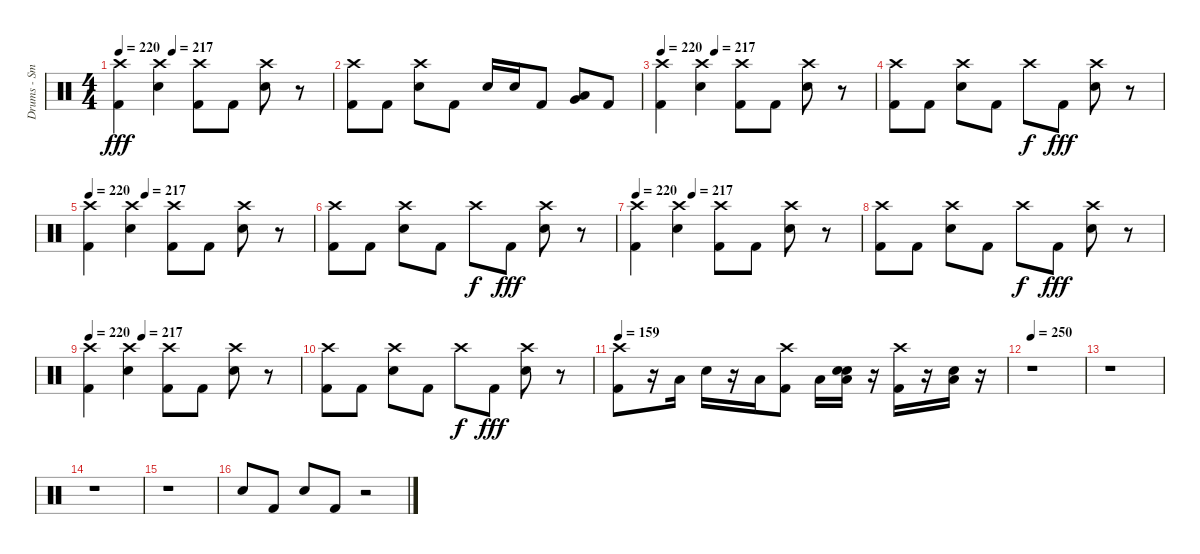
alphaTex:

\track ("Drums - Smelly" "Drums - Sm") {instrument percussion}
\staff {score}
\articulation defaults
\ts (4 4)
\tempo 220
\tempo (217 0.25)
\clef neutral
\ks c
("Crash high (hit)" "Kick (hit) 2").4{dy fff} ("Crash high (hit)" "Electric Snare (hit)").4 ("Crash high (hit)" "Kick (hit) 2").8 "Kick (hit) 2".8 ("Crash high (hit)" "Electric Snare (hit)").8 r.8 |
("Crash high (hit)" "Kick (hit) 2").8 "Kick (hit) 2".8 ("Crash high (hit)" "Electric Snare (hit)").8 "Kick (hit) 2".8 "Electric Snare (hit)".16 "Electric Snare (hit)".16 "Kick (hit) 2".8 ("Low Floor Tom (hit)" "Very Low Tom (hit)").8 "Kick (hit) 2".8 |
\tempo 220
\tempo (217 0.25)
("Crash high (hit)" "Kick (hit) 2").4 ("Crash high (hit)" "Electric Snare (hit)").4 ("Crash high (hit)" "Kick (hit) 2").8 "Kick (hit) 2".8 ("Crash high (hit)" "Electric Snare (hit)").8 r.8 |
("Crash high (hit)" "Kick (hit) 2").8 "Kick (hit) 2".8 ("Crash high (hit)" "Electric Snare (hit)").8 "Kick (hit) 2".8 "Crash high (hit)".8{dy f} "Kick (hit) 2".8{dy fff} ("Crash high (hit)" "Electric Snare (hit)").8 r.8 |
\tempo 220
\tempo (217 0.25)
("Crash high (hit)" "Kick (hit) 2").4 ("Crash high (hit)" "Electric Snare (hit)").4 ("Crash high (hit)" "Kick (hit) 2").8 "Kick (hit) 2".8 ("Crash high (hit)" "Electric Snare (hit)").8 r.8 |
("Crash high (hit)" "Kick (hit) 2").8 "Kick (hit) 2".8 ("Crash high (hit)" "Electric Snare (hit)").8 "Kick (hit) 2".8 "Crash high (hit)".8{dy f} "Kick (hit) 2".8{dy fff} ("Crash high (hit)" "Electric Snare (hit)").8 r.8 |
\tempo 220
\tempo (217 0.25)
("Crash high (hit)" "Kick (hit) 2").4 ("Crash high (hit)" "Electric Snare (hit)").4 ("Crash high (hit)" "Kick (hit) 2").8 "Kick (hit) 2".8 ("Crash high (hit)" "Electric Snare (hit)").8 r.8 |
("Crash high (hit)" "Kick (hit) 2").8 "Kick (hit) 2".8 ("Crash high (hit)" "Electric Snare (hit)").8 "Kick (hit) 2".8 "Crash high (hit)".8{dy f} "Kick (hit) 2".8{dy fff} ("Crash high (hit)" "Electric Snare (hit)").8 r.8 |
\tempo 220
\tempo (217 0.25)
("Crash high (hit)" "Kick (hit) 2").4 ("Crash high (hit)" "Electric Snare (hit)").4 ("Crash high (hit)" "Kick (hit) 2").8 "Kick (hit) 2".8 ("Crash high (hit)" "Electric Snare (hit)").8 r.8 |
("Crash high (hit)" "Kick (hit) 2").8 "Kick (hit) 2".8 ("Crash high (hit)" "Electric Snare (hit)").8 "Kick (hit) 2".8 "Crash high (hit)".8{dy f} "Kick (hit) 2".8{dy fff} ("Crash high (hit)" "Electric Snare (hit)").8 r.8 |
\tempo 159
("Kick (hit) 2" "Crash high (hit)").8 r.16 "Low Tom (hit)".16 "Electric Snare (hit)".16 r.16 "Low Tom (hit)".16 ("Crash high (hit)" "Kick (hit) 2").8 "Low Tom (hit)".16 ("Electric Snare (hit)" "Electric Snare (hit)" "Low Tom (hit)").16 r.16 ("Kick (hit) 2" "Crash high (hit)").16 r.16 ("Low Tom (hit)" "Electric Snare (hit)").16 r.16 |
\tempo 250
r.1 |
r.1 |
r.1 |
r.1 |
"Electric Snare (hit)".8 "Kick (hit) 2".8 "Electric Snare (hit)".8 "Kick (hit) 2".8 r.2
